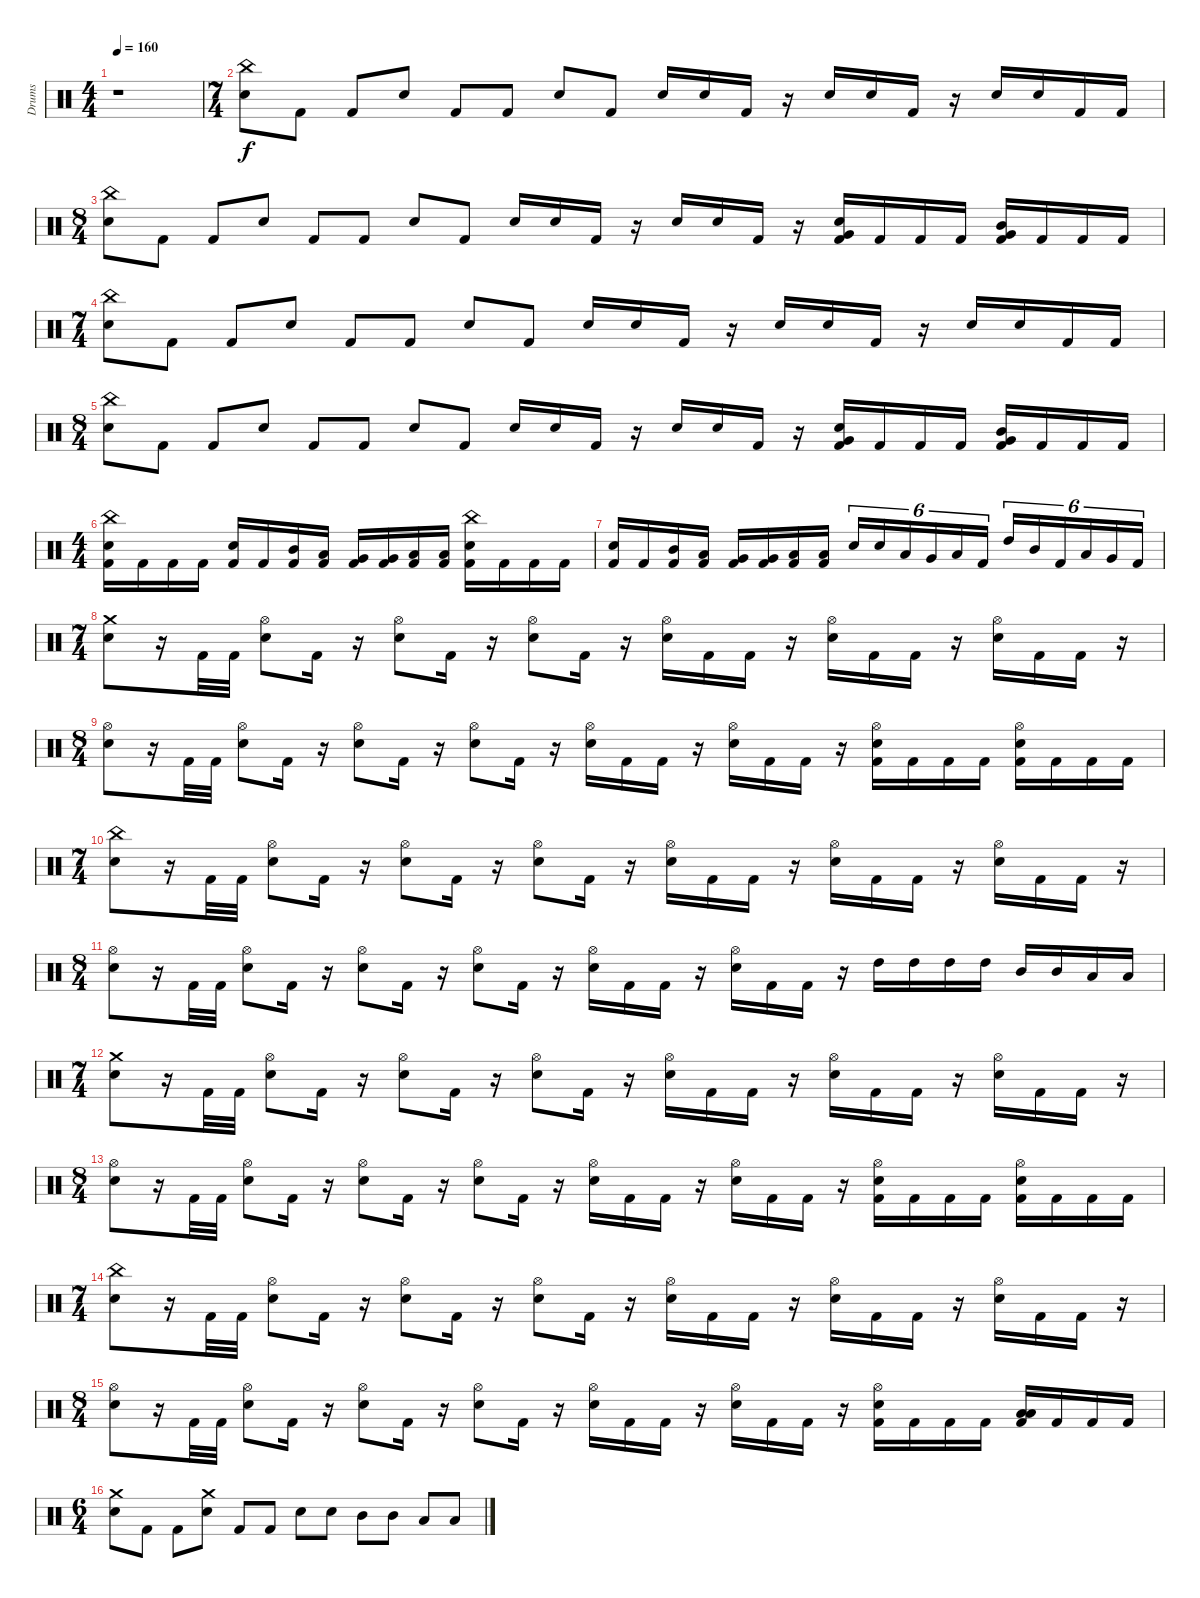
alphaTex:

\track ("Drums" "Drums") {instrument percussion}
\staff {score}
\articulation defaults
\ts (4 4)
\tempo 160
\clef neutral
\ks c
r.1{dy f} |
\ts (7 4)
("China (hit)" "Electric Snare (hit)").8 "Kick (hit) 2".8 "Kick (hit) 2".8 "Electric Snare (hit)".8 "Kick (hit) 2".8 "Kick (hit) 2".8 "Electric Snare (hit)".8 "Kick (hit) 2".8 "Electric Snare (hit)".16 "Electric Snare (hit)".16 "Kick (hit) 2".16 r.16 "Electric Snare (hit)".16 "Electric Snare (hit)".16 "Kick (hit) 2".16 r.16 "Electric Snare (hit)".16 "Electric Snare (hit)".16 "Kick (hit) 2".16 "Kick (hit) 2".16 |
\ts (8 4)
("China (hit)" "Electric Snare (hit)").8 "Kick (hit) 2".8 "Kick (hit) 2".8 "Electric Snare (hit)".8 "Kick (hit) 2".8 "Kick (hit) 2".8 "Electric Snare (hit)".8 "Kick (hit) 2".8 "Electric Snare (hit)".16 "Electric Snare (hit)".16 "Kick (hit) 2".16 r.16 "Electric Snare (hit)".16 "Electric Snare (hit)".16 "Kick (hit) 2".16 r.16 ("Very Low Tom (hit)" "Electric Snare (hit)" "Kick (hit) 2").16 "Kick (hit) 2".16 "Kick (hit) 2".16 "Kick (hit) 2".16 ("Very Low Tom (hit)" "Mid Tom (hit)" "Kick (hit) 2").16 "Kick (hit) 2".16 "Kick (hit) 2".16 "Kick (hit) 2".16 |
\ts (7 4)
("China (hit)" "Electric Snare (hit)").8 "Kick (hit) 2".8 "Kick (hit) 2".8 "Electric Snare (hit)".8 "Kick (hit) 2".8 "Kick (hit) 2".8 "Electric Snare (hit)".8 "Kick (hit) 2".8 "Electric Snare (hit)".16 "Electric Snare (hit)".16 "Kick (hit) 2".16 r.16 "Electric Snare (hit)".16 "Electric Snare (hit)".16 "Kick (hit) 2".16 r.16 "Electric Snare (hit)".16 "Electric Snare (hit)".16 "Kick (hit) 2".16 "Kick (hit) 2".16 |
\ts (8 4)
("China (hit)" "Electric Snare (hit)").8 "Kick (hit) 2".8 "Kick (hit) 2".8 "Electric Snare (hit)".8 "Kick (hit) 2".8 "Kick (hit) 2".8 "Electric Snare (hit)".8 "Kick (hit) 2".8 "Electric Snare (hit)".16 "Electric Snare (hit)".16 "Kick (hit) 2".16 r.16 "Electric Snare (hit)".16 "Electric Snare (hit)".16 "Kick (hit) 2".16 r.16 ("Very Low Tom (hit)" "Electric Snare (hit)" "Kick (hit) 2").16 "Kick (hit) 2".16 "Kick (hit) 2".16 "Kick (hit) 2".16 ("Very Low Tom (hit)" "Mid Tom (hit)" "Kick (hit) 2").16 "Kick (hit) 2".16 "Kick (hit) 2".16 "Kick (hit) 2".16 |
\ts (4 4)
("China (hit)" "Electric Snare (hit)" "Kick (hit) 2").16 "Kick (hit) 2".16 "Kick (hit) 2".16 "Kick (hit) 2".16 ("Electric Snare (hit)" "Kick (hit) 2").16 "Kick (hit) 2".16 ("Mid Tom (hit)" "Kick (hit) 2").16 ("Low Tom (hit)" "Kick (hit) 2").16 ("Very Low Tom (hit)" "Kick (hit) 2").16 ("Very Low Tom (hit)" "Kick (hit) 2").16 ("Low Floor Tom (hit)" "Kick (hit) 2").16 ("Low Floor Tom (hit)" "Kick (hit) 2").16 ("China (hit)" "Electric Snare (hit)" "Kick (hit) 2").16 "Kick (hit) 2".16 "Kick (hit) 2".16 "Kick (hit) 2".16 |
("Electric Snare (hit)" "Kick (hit) 2").16 "Kick (hit) 2".16 ("Mid Tom (hit)" "Kick (hit) 2").16 ("Low Tom (hit)" "Kick (hit) 2").16 ("Very Low Tom (hit)" "Kick (hit) 2").16 ("Very Low Tom (hit)" "Kick (hit) 2").16 ("Low Floor Tom (hit)" "Kick (hit) 2").16 ("Low Floor Tom (hit)" "Kick (hit) 2").16 "Electric Snare (hit)".16{tu (6 4)} "Electric Snare (hit)".16{tu (6 4)} "Low Tom (hit)".16{tu (6 4)} "Very Low Tom (hit)".16{tu (6 4)} "Low Floor Tom (hit)".16{tu (6 4)} "Kick (hit) 2".16{tu (6 4)} "High Tom (hit)".16{tu (6 4)} "Mid Tom (hit)".16{tu (6 4)} "Kick (hit) 2".16{tu (6 4)} "Low Tom (hit)".16{tu (6 4)} "Very Low Tom (hit)".16{tu (6 4)} "Kick (hit) 2".16{tu (6 4)} |
\ts (7 4)
("Crash medium (hit)" "Electric Snare (hit)").8 r.16 "Kick (hit) 2".32 "Kick (hit) 2".32 ("Hi-Hat (open)" "Electric Snare (hit)").8 "Kick (hit) 2".16 r.16 ("Hi-Hat (open)" "Electric Snare (hit)").8 "Kick (hit) 2".16 r.16 ("Hi-Hat (open)" "Electric Snare (hit)").8 "Kick (hit) 2".16 r.16 ("Hi-Hat (open)" "Electric Snare (hit)").16 "Kick (hit) 2".16 "Kick (hit) 2".16 r.16 ("Hi-Hat (open)" "Electric Snare (hit)").16 "Kick (hit) 2".16 "Kick (hit) 2".16 r.16 ("Hi-Hat (open)" "Electric Snare (hit)").16 "Kick (hit) 2".16 "Kick (hit) 2".16 r.16 |
\ts (8 4)
("Hi-Hat (open)" "Electric Snare (hit)").8 r.16 "Kick (hit) 2".32 "Kick (hit) 2".32 ("Hi-Hat (open)" "Electric Snare (hit)").8 "Kick (hit) 2".16 r.16 ("Hi-Hat (open)" "Electric Snare (hit)").8 "Kick (hit) 2".16 r.16 ("Hi-Hat (open)" "Electric Snare (hit)").8 "Kick (hit) 2".16 r.16 ("Hi-Hat (open)" "Electric Snare (hit)").16 "Kick (hit) 2".16 "Kick (hit) 2".16 r.16 ("Hi-Hat (open)" "Electric Snare (hit)").16 "Kick (hit) 2".16 "Kick (hit) 2".16 r.16 ("Kick (hit) 2" "Hi-Hat (open)" "Electric Snare (hit)").16 "Kick (hit) 2".16 "Kick (hit) 2".16 "Kick (hit) 2".16 ("Hi-Hat (open)" "Electric Snare (hit)" "Kick (hit) 2").16 "Kick (hit) 2".16 "Kick (hit) 2".16 "Kick (hit) 2".16 |
\ts (7 4)
("China (hit)" "Electric Snare (hit)").8 r.16 "Kick (hit) 2".32 "Kick (hit) 2".32 ("Hi-Hat (open)" "Electric Snare (hit)").8 "Kick (hit) 2".16 r.16 ("Hi-Hat (open)" "Electric Snare (hit)").8 "Kick (hit) 2".16 r.16 ("Hi-Hat (open)" "Electric Snare (hit)").8 "Kick (hit) 2".16 r.16 ("Hi-Hat (open)" "Electric Snare (hit)").16 "Kick (hit) 2".16 "Kick (hit) 2".16 r.16 ("Hi-Hat (open)" "Electric Snare (hit)").16 "Kick (hit) 2".16 "Kick (hit) 2".16 r.16 ("Hi-Hat (open)" "Electric Snare (hit)").16 "Kick (hit) 2".16 "Kick (hit) 2".16 r.16 |
\ts (8 4)
("Hi-Hat (open)" "Electric Snare (hit)").8 r.16 "Kick (hit) 2".32 "Kick (hit) 2".32 ("Hi-Hat (open)" "Electric Snare (hit)").8 "Kick (hit) 2".16 r.16 ("Hi-Hat (open)" "Electric Snare (hit)").8 "Kick (hit) 2".16 r.16 ("Hi-Hat (open)" "Electric Snare (hit)").8 "Kick (hit) 2".16 r.16 ("Hi-Hat (open)" "Electric Snare (hit)").16 "Kick (hit) 2".16 "Kick (hit) 2".16 r.16 ("Hi-Hat (open)" "Electric Snare (hit)").16 "Kick (hit) 2".16 "Kick (hit) 2".16 r.16 "High Tom (hit)".16 "High Tom (hit)".16 "High Tom (hit)".16 "High Tom (hit)".16 "Mid Tom (hit)".16 "Mid Tom (hit)".16 "Low Tom (hit)".16 "Low Tom (hit)".16 |
\ts (7 4)
("Crash medium (hit)" "Electric Snare (hit)").8 r.16 "Kick (hit) 2".32 "Kick (hit) 2".32 ("Hi-Hat (open)" "Electric Snare (hit)").8 "Kick (hit) 2".16 r.16 ("Hi-Hat (open)" "Electric Snare (hit)").8 "Kick (hit) 2".16 r.16 ("Hi-Hat (open)" "Electric Snare (hit)").8 "Kick (hit) 2".16 r.16 ("Hi-Hat (open)" "Electric Snare (hit)").16 "Kick (hit) 2".16 "Kick (hit) 2".16 r.16 ("Hi-Hat (open)" "Electric Snare (hit)").16 "Kick (hit) 2".16 "Kick (hit) 2".16 r.16 ("Hi-Hat (open)" "Electric Snare (hit)").16 "Kick (hit) 2".16 "Kick (hit) 2".16 r.16 |
\ts (8 4)
("Hi-Hat (open)" "Electric Snare (hit)").8 r.16 "Kick (hit) 2".32 "Kick (hit) 2".32 ("Hi-Hat (open)" "Electric Snare (hit)").8 "Kick (hit) 2".16 r.16 ("Hi-Hat (open)" "Electric Snare (hit)").8 "Kick (hit) 2".16 r.16 ("Hi-Hat (open)" "Electric Snare (hit)").8 "Kick (hit) 2".16 r.16 ("Hi-Hat (open)" "Electric Snare (hit)").16 "Kick (hit) 2".16 "Kick (hit) 2".16 r.16 ("Hi-Hat (open)" "Electric Snare (hit)").16 "Kick (hit) 2".16 "Kick (hit) 2".16 r.16 ("Kick (hit) 2" "Hi-Hat (open)" "Electric Snare (hit)").16 "Kick (hit) 2".16 "Kick (hit) 2".16 "Kick (hit) 2".16 ("Hi-Hat (open)" "Electric Snare (hit)" "Kick (hit) 2").16 "Kick (hit) 2".16 "Kick (hit) 2".16 "Kick (hit) 2".16 |
\ts (7 4)
("China (hit)" "Electric Snare (hit)").8 r.16 "Kick (hit) 2".32 "Kick (hit) 2".32 ("Hi-Hat (open)" "Electric Snare (hit)").8 "Kick (hit) 2".16 r.16 ("Hi-Hat (open)" "Electric Snare (hit)").8 "Kick (hit) 2".16 r.16 ("Hi-Hat (open)" "Electric Snare (hit)").8 "Kick (hit) 2".16 r.16 ("Hi-Hat (open)" "Electric Snare (hit)").16 "Kick (hit) 2".16 "Kick (hit) 2".16 r.16 ("Hi-Hat (open)" "Electric Snare (hit)").16 "Kick (hit) 2".16 "Kick (hit) 2".16 r.16 ("Hi-Hat (open)" "Electric Snare (hit)").16 "Kick (hit) 2".16 "Kick (hit) 2".16 r.16 |
\ts (8 4)
("Hi-Hat (open)" "Electric Snare (hit)").8 r.16 "Kick (hit) 2".32 "Kick (hit) 2".32 ("Hi-Hat (open)" "Electric Snare (hit)").8 "Kick (hit) 2".16 r.16 ("Hi-Hat (open)" "Electric Snare (hit)").8 "Kick (hit) 2".16 r.16 ("Hi-Hat (open)" "Electric Snare (hit)").8 "Kick (hit) 2".16 r.16 ("Hi-Hat (open)" "Electric Snare (hit)").16 "Kick (hit) 2".16 "Kick (hit) 2".16 r.16 ("Hi-Hat (open)" "Electric Snare (hit)").16 "Kick (hit) 2".16 "Kick (hit) 2".16 r.16 ("Hi-Hat (open)" "Electric Snare (hit)" "Kick (hit) 2").16 "Kick (hit) 2".16 "Kick (hit) 2".16 "Kick (hit) 2".16 ("Low Tom (hit)" "Low Floor Tom (hit)" "Kick (hit) 2").16 "Kick (hit) 2".16 "Kick (hit) 2".16 "Kick (hit) 2".16 |
\ts (6 4)
("Crash medium (hit)" "Electric Snare (hit)").8 "Kick (hit) 2".8 "Kick (hit) 2".8 ("Crash medium (hit)" "Electric Snare (hit)").8 "Kick (hit) 2".8 "Kick (hit) 2".8 "Electric Snare (hit)".8 "Electric Snare (hit)".8 "Mid Tom (hit)".8 "Mid Tom (hit)".8 "Low Tom (hit)".8 "Low Tom (hit)".8
